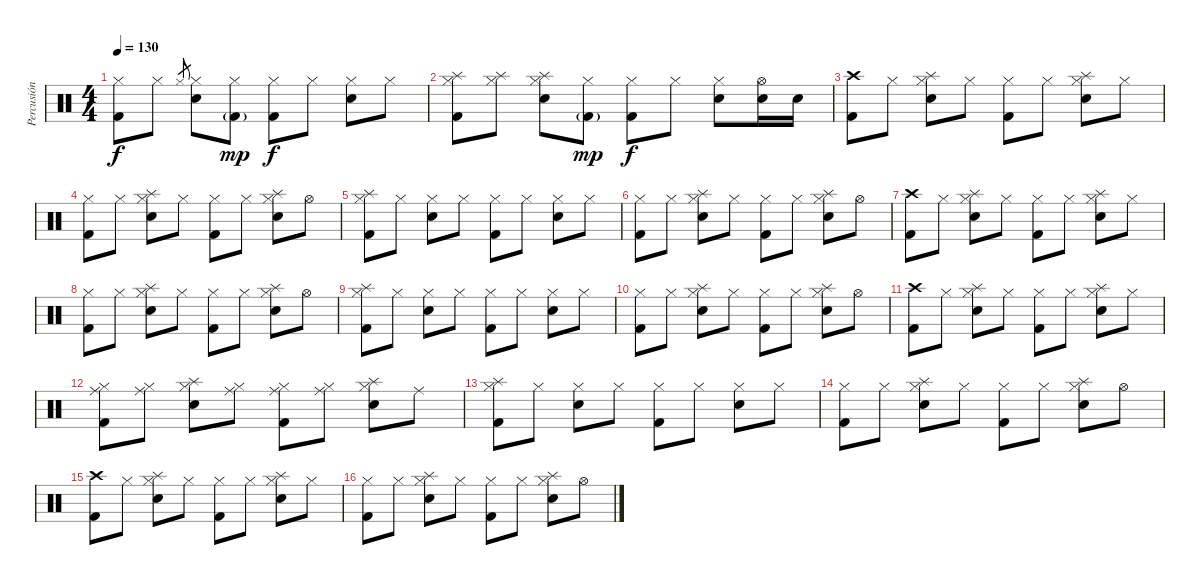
\track ("Percusión" "Percusión") {instrument percussion}
\staff {score}
\articulation defaults
\ts (4 4)
\tempo 130
\clef neutral
\ks c
("Hi-Hat (closed)" "Kick (hit) 2").8{dy f} "Hi-Hat (closed)".8 "Hi-Hat (closed)".8{gr} ("Hi-Hat (closed)" "Snare (hit) 2").8 ("Hi-Hat (closed)" "Kick (hit) 2"{g}).8{dy mp} ("Hi-Hat (closed)" "Kick (hit) 2").8{dy f} "Hi-Hat (closed)".8 ("Hi-Hat (closed)" "Snare (hit) 2").8 "Hi-Hat (closed)".8 |
("Hi-Hat (closed)" "Kick (hit) 2" "Splash (hit)").8 ("Hi-Hat (closed)" "Splash (hit)").8 ("Hi-Hat (closed)" "Snare (hit) 2" "Splash (hit)").8 ("Hi-Hat (closed)" "Kick (hit) 2"{g}).8{dy mp} ("Hi-Hat (closed)" "Kick (hit) 2").8{dy f} "Hi-Hat (closed)".8 ("Hi-Hat (closed)" "Snare (hit) 2").8 ("Hi-Hat (open)" "Snare (hit) 2").16 "Snare (hit) 2".16 |
("Crash high (hit)" "Kick (hit) 2").8 "Hi-Hat (closed)".8 ("Hi-Hat (closed)" "Snare (hit) 2" "Splash (hit)").8 "Hi-Hat (closed)".8 ("Hi-Hat (closed)" "Kick (hit) 2").8 "Hi-Hat (closed)".8 ("Hi-Hat (closed)" "Snare (hit) 2" "Splash (hit)").8 "Hi-Hat (closed)".8 |
("Hi-Hat (closed)" "Kick (hit) 2").8 "Hi-Hat (closed)".8 ("Hi-Hat (closed)" "Snare (hit) 2" "Splash (hit)").8 "Hi-Hat (closed)".8 ("Hi-Hat (closed)" "Kick (hit) 2").8 "Hi-Hat (closed)".8 ("Hi-Hat (closed)" "Snare (hit) 2" "Splash (hit)").8 "Hi-Hat (open)".8 |
("Hi-Hat (closed)" "Kick (hit) 2" "Splash (hit)").8 "Hi-Hat (closed)".8 ("Hi-Hat (closed)" "Snare (hit) 2").8 "Hi-Hat (closed)".8 ("Hi-Hat (closed)" "Kick (hit) 2").8 "Hi-Hat (closed)".8 ("Hi-Hat (closed)" "Snare (hit) 2").8 "Hi-Hat (closed)".8 |
("Hi-Hat (closed)" "Kick (hit) 2").8 "Hi-Hat (closed)".8 ("Hi-Hat (closed)" "Snare (hit) 2" "Splash (hit)").8 "Hi-Hat (closed)".8 ("Hi-Hat (closed)" "Kick (hit) 2").8 "Hi-Hat (closed)".8 ("Hi-Hat (closed)" "Snare (hit) 2" "Splash (hit)").8 "Hi-Hat (open)".8 |
("Crash high (hit)" "Kick (hit) 2").8 "Hi-Hat (closed)".8 ("Hi-Hat (closed)" "Snare (hit) 2" "Splash (hit)").8 "Hi-Hat (closed)".8 ("Hi-Hat (closed)" "Kick (hit) 2").8 "Hi-Hat (closed)".8 ("Hi-Hat (closed)" "Snare (hit) 2" "Splash (hit)").8 "Hi-Hat (closed)".8 |
("Hi-Hat (closed)" "Kick (hit) 2").8 "Hi-Hat (closed)".8 ("Hi-Hat (closed)" "Snare (hit) 2" "Splash (hit)").8 "Hi-Hat (closed)".8 ("Hi-Hat (closed)" "Kick (hit) 2").8 "Hi-Hat (closed)".8 ("Hi-Hat (closed)" "Snare (hit) 2" "Splash (hit)").8 "Hi-Hat (open)".8 |
("Hi-Hat (closed)" "Kick (hit) 2" "Splash (hit)").8 "Hi-Hat (closed)".8 ("Hi-Hat (closed)" "Snare (hit) 2").8 "Hi-Hat (closed)".8 ("Hi-Hat (closed)" "Kick (hit) 2").8 "Hi-Hat (closed)".8 ("Hi-Hat (closed)" "Snare (hit) 2").8 "Hi-Hat (closed)".8 |
("Hi-Hat (closed)" "Kick (hit) 2").8 "Hi-Hat (closed)".8 ("Hi-Hat (closed)" "Snare (hit) 2" "Splash (hit)").8 "Hi-Hat (closed)".8 ("Hi-Hat (closed)" "Kick (hit) 2").8 "Hi-Hat (closed)".8 ("Hi-Hat (closed)" "Snare (hit) 2" "Splash (hit)").8 "Hi-Hat (open)".8 |
("Crash high (hit)" "Kick (hit) 2").8 "Hi-Hat (closed)".8 ("Hi-Hat (closed)" "Snare (hit) 2" "Splash (hit)").8 "Hi-Hat (closed)".8 ("Hi-Hat (closed)" "Kick (hit) 2").8 "Hi-Hat (closed)".8 ("Hi-Hat (closed)" "Snare (hit) 2" "Splash (hit)").8 "Hi-Hat (closed)".8 |
("Hi-Hat (closed)" "Kick (hit) 2" "Ride (middle)").8 ("Hi-Hat (closed)" "Ride (middle)").8 ("Hi-Hat (closed)" "Snare (hit) 2" "Splash (hit)").8 ("Hi-Hat (closed)" "Ride (middle)").8 ("Hi-Hat (closed)" "Kick (hit) 2" "Ride (middle)").8 ("Hi-Hat (closed)" "Ride (middle)").8 ("Hi-Hat (closed)" "Snare (hit) 2" "Splash (hit)").8 "Ride (middle)".8 |
("Hi-Hat (closed)" "Kick (hit) 2" "Splash (hit)").8 "Hi-Hat (closed)".8 ("Hi-Hat (closed)" "Snare (hit) 2").8 "Hi-Hat (closed)".8 ("Hi-Hat (closed)" "Kick (hit) 2").8 "Hi-Hat (closed)".8 ("Hi-Hat (closed)" "Snare (hit) 2").8 "Hi-Hat (closed)".8 |
("Hi-Hat (closed)" "Kick (hit) 2").8 "Hi-Hat (closed)".8 ("Hi-Hat (closed)" "Snare (hit) 2" "Splash (hit)").8 "Hi-Hat (closed)".8 ("Hi-Hat (closed)" "Kick (hit) 2").8 "Hi-Hat (closed)".8 ("Hi-Hat (closed)" "Snare (hit) 2" "Splash (hit)").8 "Hi-Hat (open)".8 |
("Crash high (hit)" "Kick (hit) 2").8 "Hi-Hat (closed)".8 ("Hi-Hat (closed)" "Snare (hit) 2" "Splash (hit)").8 "Hi-Hat (closed)".8 ("Hi-Hat (closed)" "Kick (hit) 2").8 "Hi-Hat (closed)".8 ("Hi-Hat (closed)" "Snare (hit) 2" "Splash (hit)").8 "Hi-Hat (closed)".8 |
("Hi-Hat (closed)" "Kick (hit) 2").8 "Hi-Hat (closed)".8 ("Hi-Hat (closed)" "Snare (hit) 2" "Splash (hit)").8 "Hi-Hat (closed)".8 ("Hi-Hat (closed)" "Kick (hit) 2").8 "Hi-Hat (closed)".8 ("Hi-Hat (closed)" "Snare (hit) 2" "Splash (hit)").8 "Hi-Hat (open)".8
